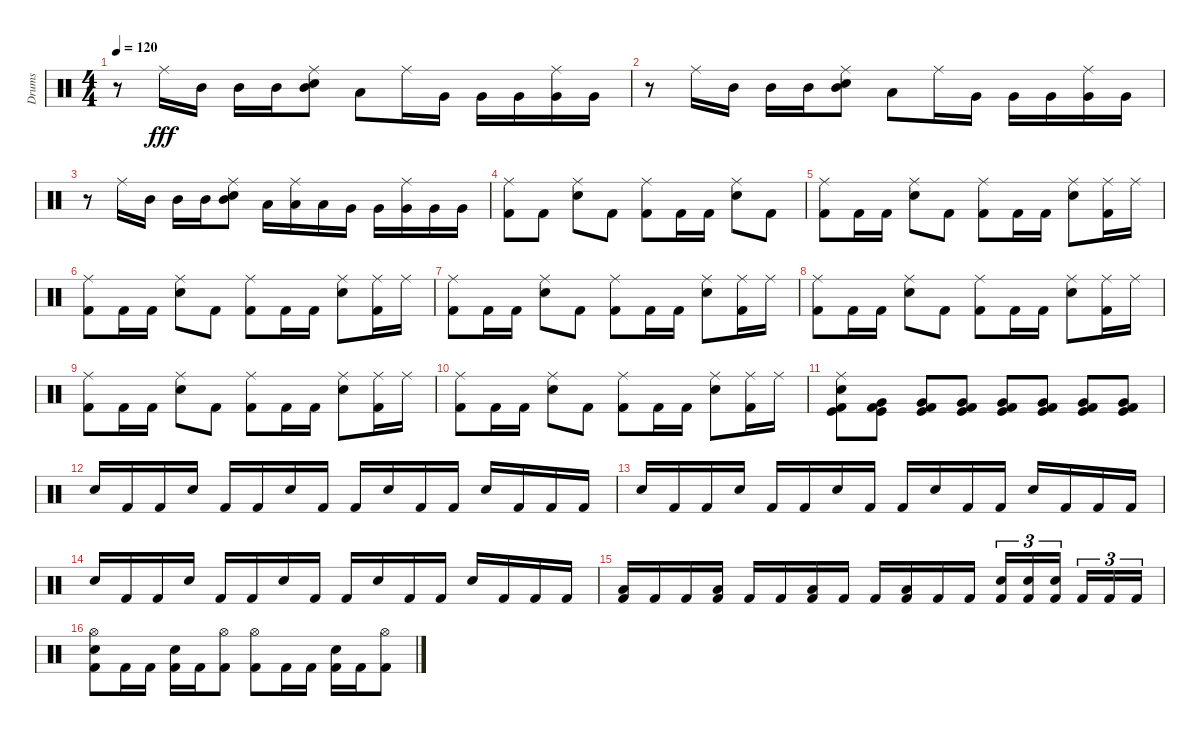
\track ("Drums" "Drums") {instrument percussion}
\staff {score}
\articulation defaults
\ts (4 4)
\tempo 120
\clef neutral
\ks c
r.8{dy fff} "Ride (middle)".16 "Mid Tom (hit)".16 "Mid Tom (hit)".16 "Mid Tom (hit)".16 ("Ride (middle)" "Snare (hit) 2" "Mid Tom (hit)").8 "Low Tom (hit)".8 "Ride (middle)".16 "Very Low Tom (hit)".16 "Very Low Tom (hit)".16 "Very Low Tom (hit)".16 ("Ride (middle)" "Very Low Tom (hit)").16 "Very Low Tom (hit)".16 |
r.8 "Ride (middle)".16 "Mid Tom (hit)".16 "Mid Tom (hit)".16 "Mid Tom (hit)".16 ("Ride (middle)" "Snare (hit) 2" "Mid Tom (hit)").8 "Low Tom (hit)".8 "Ride (middle)".16 "Very Low Tom (hit)".16 "Very Low Tom (hit)".16 "Very Low Tom (hit)".16 ("Ride (middle)" "Very Low Tom (hit)").16 "Very Low Tom (hit)".16 |
r.8 "Ride (middle)".16 "Mid Tom (hit)".16 "Mid Tom (hit)".16 "Mid Tom (hit)".16 ("Ride (middle)" "Snare (hit) 2" "Mid Tom (hit)").8 "Low Tom (hit)".16 ("Ride (middle)" "Low Tom (hit)").16 "Low Tom (hit)".16 "Very Low Tom (hit)".16 "Very Low Tom (hit)".16 ("Ride (middle)" "Very Low Tom (hit)").16 "Very Low Tom (hit)".16 "Very Low Tom (hit)".16 |
("Ride (middle)" "Kick (hit) 2").8 "Kick (hit) 2".8 ("Ride (middle)" "Electric Snare (hit)").8 "Kick (hit) 2".8 ("Ride (middle)" "Kick (hit) 2").8 "Kick (hit) 2".16 "Kick (hit) 2".16 ("Ride (middle)" "Electric Snare (hit)").8 "Kick (hit) 2".8 |
("Ride (middle)" "Kick (hit) 2").8 "Kick (hit) 2".16 "Kick (hit) 2".16 ("Ride (middle)" "Electric Snare (hit)").8 "Kick (hit) 2".8 ("Ride (middle)" "Kick (hit) 2").8 "Kick (hit) 2".16 "Kick (hit) 2".16 ("Ride (middle)" "Electric Snare (hit)").8 ("Ride (middle)" "Kick (hit) 2").16 "Ride (middle)".16 |
("Ride (middle)" "Kick (hit) 2").8 "Kick (hit) 2".16 "Kick (hit) 2".16 ("Ride (middle)" "Electric Snare (hit)").8 "Kick (hit) 2".8 ("Ride (middle)" "Kick (hit) 2").8 "Kick (hit) 2".16 "Kick (hit) 2".16 ("Ride (middle)" "Electric Snare (hit)").8 ("Ride (middle)" "Kick (hit) 2").16 "Ride (middle)".16 |
("Ride (middle)" "Kick (hit) 2").8 "Kick (hit) 2".16 "Kick (hit) 2".16 ("Ride (middle)" "Electric Snare (hit)").8 "Kick (hit) 2".8 ("Ride (middle)" "Kick (hit) 2").8 "Kick (hit) 2".16 "Kick (hit) 2".16 ("Ride (middle)" "Electric Snare (hit)").8 ("Ride (middle)" "Kick (hit) 2").16 "Ride (middle)".16 |
("Ride (middle)" "Kick (hit) 2").8 "Kick (hit) 2".16 "Kick (hit) 2".16 ("Ride (middle)" "Electric Snare (hit)").8 "Kick (hit) 2".8 ("Ride (middle)" "Kick (hit) 2").8 "Kick (hit) 2".16 "Kick (hit) 2".16 ("Ride (middle)" "Electric Snare (hit)").8 ("Ride (middle)" "Kick (hit) 2").16 "Ride (middle)".16 |
("Ride (middle)" "Kick (hit) 2").8 "Kick (hit) 2".16 "Kick (hit) 2".16 ("Ride (middle)" "Electric Snare (hit)").8 "Kick (hit) 2".8 ("Ride (middle)" "Kick (hit) 2").8 "Kick (hit) 2".16 "Kick (hit) 2".16 ("Ride (middle)" "Electric Snare (hit)").8 ("Ride (middle)" "Kick (hit) 2").16 "Ride (middle)".16 |
("Ride (middle)" "Kick (hit) 2").8 "Kick (hit) 2".16 "Kick (hit) 2".16 ("Ride (middle)" "Electric Snare (hit)").8 "Kick (hit) 2".8 ("Ride (middle)" "Kick (hit) 2").8 "Kick (hit) 2".16 "Kick (hit) 2".16 ("Ride (middle)" "Electric Snare (hit)").8 ("Ride (middle)" "Kick (hit) 2").16 "Ride (middle)".16 |
("Ride (middle)" "Snare (hit) 2" "Kick (hit) 2" "Kick (hit)").8 ("Very Low Tom (hit)" "Kick (hit) 2" "Kick (hit)").8 ("Very Low Tom (hit)" "Kick (hit) 2" "Kick (hit)").8 ("Very Low Tom (hit)" "Kick (hit) 2" "Kick (hit)").8 ("Very Low Tom (hit)" "Kick (hit) 2" "Kick (hit)").8 ("Very Low Tom (hit)" "Kick (hit) 2" "Kick (hit)").8 ("Very Low Tom (hit)" "Kick (hit) 2" "Kick (hit)").8 ("Very Low Tom (hit)" "Kick (hit) 2" "Kick (hit)").8 |
"Snare (hit) 2".16 "Kick (hit) 2".16 "Kick (hit) 2".16 "Snare (hit) 2".16 "Kick (hit) 2".16 "Kick (hit) 2".16 "Snare (hit) 2".16 "Kick (hit) 2".16 "Kick (hit) 2".16 "Snare (hit) 2".16 "Kick (hit) 2".16 "Kick (hit) 2".16 "Snare (hit) 2".16 "Kick (hit) 2".16 "Kick (hit) 2".16 "Kick (hit) 2".16 |
"Snare (hit) 2".16 "Kick (hit) 2".16 "Kick (hit) 2".16 "Snare (hit) 2".16 "Kick (hit) 2".16 "Kick (hit) 2".16 "Snare (hit) 2".16 "Kick (hit) 2".16 "Kick (hit) 2".16 "Snare (hit) 2".16 "Kick (hit) 2".16 "Kick (hit) 2".16 "Snare (hit) 2".16 "Kick (hit) 2".16 "Kick (hit) 2".16 "Kick (hit) 2".16 |
"Snare (hit) 2".16 "Kick (hit) 2".16 "Kick (hit) 2".16 "Snare (hit) 2".16 "Kick (hit) 2".16 "Kick (hit) 2".16 "Snare (hit) 2".16 "Kick (hit) 2".16 "Kick (hit) 2".16 "Snare (hit) 2".16 "Kick (hit) 2".16 "Kick (hit) 2".16 "Snare (hit) 2".16 "Kick (hit) 2".16 "Kick (hit) 2".16 "Kick (hit) 2".16 |
("Low Floor Tom (hit)" "Kick (hit) 2").16 "Kick (hit) 2".16 "Kick (hit) 2".16 ("Low Floor Tom (hit)" "Kick (hit) 2").16 "Kick (hit) 2".16 "Kick (hit) 2".16 ("Low Floor Tom (hit)" "Kick (hit) 2").16 "Kick (hit) 2".16 "Kick (hit) 2".16 ("Low Floor Tom (hit)" "Kick (hit) 2").16 "Kick (hit) 2".16 "Kick (hit) 2".16 ("Snare (hit) 2" "Kick (hit) 2").16{tu (3 2)} ("Snare (hit) 2" "Kick (hit) 2").16{tu (3 2)} ("Snare (hit) 2" "Kick (hit) 2").16{tu (3 2)} "Kick (hit) 2".16{tu (3 2)} "Kick (hit) 2".16{tu (3 2)} "Kick (hit) 2".16{tu (3 2)} |
("Hi-Hat (open)" "Electric Snare (hit)" "Kick (hit) 2").8 "Kick (hit) 2".16 "Kick (hit) 2".16 ("Electric Snare (hit)" "Kick (hit) 2").16 "Kick (hit) 2".16 ("Hi-Hat (open)" "Kick (hit) 2").8 ("Hi-Hat (open)" "Kick (hit) 2").8 "Kick (hit) 2".16 "Kick (hit) 2".16 ("Electric Snare (hit)" "Kick (hit) 2").16 "Kick (hit) 2".16 ("Hi-Hat (open)" "Kick (hit) 2").8
